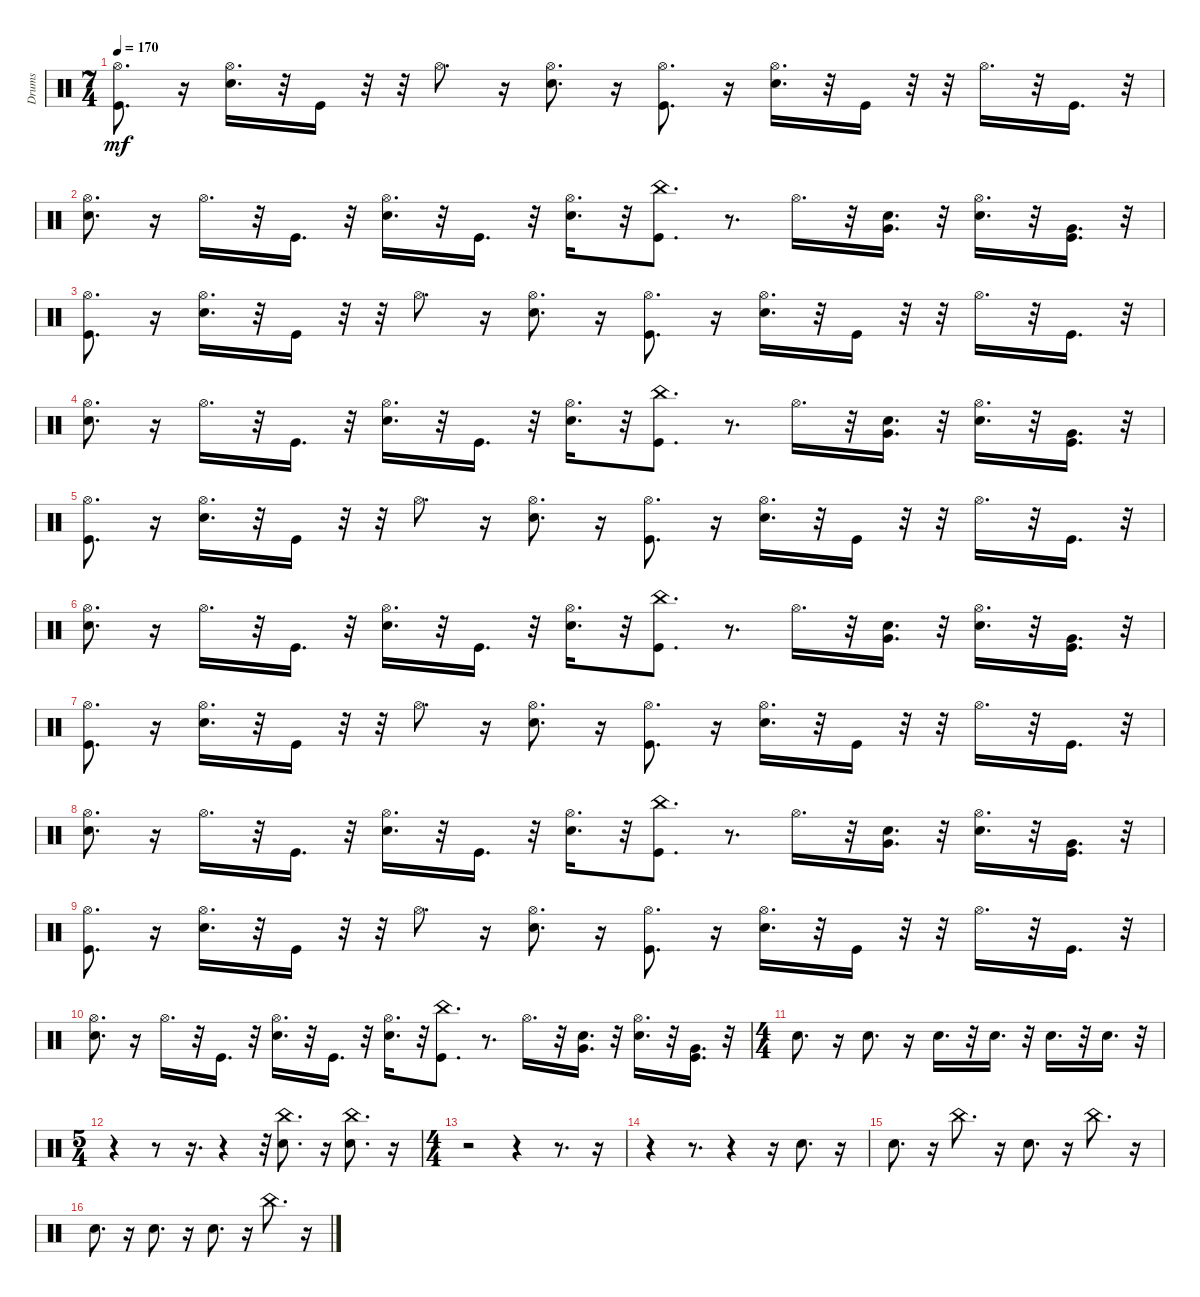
\track ("Drums" "Drums") {instrument percussion}
\staff {score}
\articulation defaults
\ts (7 4)
\tempo 170
\clef neutral
\ks c
("Kick (hit)" "Hi-Hat (open)").8{d dy mf} r.16 ("Snare (hit) 2" "Hi-Hat (open)").16{d} r.32 "Kick (hit)".16 r.32 r.32 "Hi-Hat (open)".8{d} r.16 ("Snare (hit) 2" "Hi-Hat (open)").8{d} r.16 ("Kick (hit)" "Hi-Hat (open)").8{d} r.16 ("Snare (hit) 2" "Hi-Hat (open)").16{d} r.32 "Kick (hit)".16 r.32 r.32 "Hi-Hat (open)".16{d} r.32 "Kick (hit)".16{d} r.32 |
("Snare (hit) 2" "Hi-Hat (open)").8{d} r.16 "Hi-Hat (open)".16{d} r.32 "Kick (hit)".16{d} r.32 ("Snare (hit) 2" "Hi-Hat (open)").16{d} r.32 "Kick (hit)".16{d} r.32 ("Snare (hit) 2" "Hi-Hat (open)").16{d} r.32 ("Kick (hit)" "China (hit)").8{d} r.8{d} "Hi-Hat (open)".16{d} r.32 ("Snare (hit) 2" "Very Low Tom (hit)").16{d} r.32 ("Snare (hit) 2" "Hi-Hat (open)").16{d} r.32 ("Kick (hit)" "Very Low Tom (hit)").16{d} r.32 |
("Kick (hit)" "Hi-Hat (open)").8{d} r.16 ("Snare (hit) 2" "Hi-Hat (open)").16{d} r.32 "Kick (hit)".16 r.32 r.32 "Hi-Hat (open)".8{d} r.16 ("Snare (hit) 2" "Hi-Hat (open)").8{d} r.16 ("Kick (hit)" "Hi-Hat (open)").8{d} r.16 ("Snare (hit) 2" "Hi-Hat (open)").16{d} r.32 "Kick (hit)".16 r.32 r.32 "Hi-Hat (open)".16{d} r.32 "Kick (hit)".16{d} r.32 |
("Snare (hit) 2" "Hi-Hat (open)").8{d} r.16 "Hi-Hat (open)".16{d} r.32 "Kick (hit)".16{d} r.32 ("Snare (hit) 2" "Hi-Hat (open)").16{d} r.32 "Kick (hit)".16{d} r.32 ("Snare (hit) 2" "Hi-Hat (open)").16{d} r.32 ("Kick (hit)" "China (hit)").8{d} r.8{d} "Hi-Hat (open)".16{d} r.32 ("Snare (hit) 2" "Very Low Tom (hit)").16{d} r.32 ("Snare (hit) 2" "Hi-Hat (open)").16{d} r.32 ("Kick (hit)" "Very Low Tom (hit)").16{d} r.32 |
("Kick (hit)" "Hi-Hat (open)").8{d} r.16 ("Snare (hit) 2" "Hi-Hat (open)").16{d} r.32 "Kick (hit)".16 r.32 r.32 "Hi-Hat (open)".8{d} r.16 ("Snare (hit) 2" "Hi-Hat (open)").8{d} r.16 ("Kick (hit)" "Hi-Hat (open)").8{d} r.16 ("Snare (hit) 2" "Hi-Hat (open)").16{d} r.32 "Kick (hit)".16 r.32 r.32 "Hi-Hat (open)".16{d} r.32 "Kick (hit)".16{d} r.32 |
("Snare (hit) 2" "Hi-Hat (open)").8{d} r.16 "Hi-Hat (open)".16{d} r.32 "Kick (hit)".16{d} r.32 ("Snare (hit) 2" "Hi-Hat (open)").16{d} r.32 "Kick (hit)".16{d} r.32 ("Snare (hit) 2" "Hi-Hat (open)").16{d} r.32 ("Kick (hit)" "China (hit)").8{d} r.8{d} "Hi-Hat (open)".16{d} r.32 ("Snare (hit) 2" "Very Low Tom (hit)").16{d} r.32 ("Snare (hit) 2" "Hi-Hat (open)").16{d} r.32 ("Kick (hit)" "Very Low Tom (hit)").16{d} r.32 |
("Kick (hit)" "Hi-Hat (open)").8{d} r.16 ("Snare (hit) 2" "Hi-Hat (open)").16{d} r.32 "Kick (hit)".16 r.32 r.32 "Hi-Hat (open)".8{d} r.16 ("Snare (hit) 2" "Hi-Hat (open)").8{d} r.16 ("Kick (hit)" "Hi-Hat (open)").8{d} r.16 ("Snare (hit) 2" "Hi-Hat (open)").16{d} r.32 "Kick (hit)".16 r.32 r.32 "Hi-Hat (open)".16{d} r.32 "Kick (hit)".16{d} r.32 |
("Snare (hit) 2" "Hi-Hat (open)").8{d} r.16 "Hi-Hat (open)".16{d} r.32 "Kick (hit)".16{d} r.32 ("Snare (hit) 2" "Hi-Hat (open)").16{d} r.32 "Kick (hit)".16{d} r.32 ("Snare (hit) 2" "Hi-Hat (open)").16{d} r.32 ("Kick (hit)" "China (hit)").8{d} r.8{d} "Hi-Hat (open)".16{d} r.32 ("Snare (hit) 2" "Very Low Tom (hit)").16{d} r.32 ("Snare (hit) 2" "Hi-Hat (open)").16{d} r.32 ("Kick (hit)" "Very Low Tom (hit)").16{d} r.32 |
("Kick (hit)" "Hi-Hat (open)").8{d} r.16 ("Snare (hit) 2" "Hi-Hat (open)").16{d} r.32 "Kick (hit)".16 r.32 r.32 "Hi-Hat (open)".8{d} r.16 ("Snare (hit) 2" "Hi-Hat (open)").8{d} r.16 ("Kick (hit)" "Hi-Hat (open)").8{d} r.16 ("Snare (hit) 2" "Hi-Hat (open)").16{d} r.32 "Kick (hit)".16 r.32 r.32 "Hi-Hat (open)".16{d} r.32 "Kick (hit)".16{d} r.32 |
("Snare (hit) 2" "Hi-Hat (open)").8{d} r.16 "Hi-Hat (open)".16{d} r.32 "Kick (hit)".16{d} r.32 ("Snare (hit) 2" "Hi-Hat (open)").16{d} r.32 "Kick (hit)".16{d} r.32 ("Snare (hit) 2" "Hi-Hat (open)").16{d} r.32 ("Kick (hit)" "China (hit)").8{d} r.8{d} "Hi-Hat (open)".16{d} r.32 ("Snare (hit) 2" "Very Low Tom (hit)").16{d} r.32 ("Snare (hit) 2" "Hi-Hat (open)").16{d} r.32 ("Kick (hit)" "Very Low Tom (hit)").16{d} r.32 |
\ts (4 4)
"Snare (hit) 2".8{d} r.16 "Snare (hit) 2".8{d} r.16 "Snare (hit) 2".16{d} r.32 "Snare (hit) 2".16{d} r.32 "Snare (hit) 2".16{d} r.32 "Snare (hit) 2".16{d} r.32 |
\ts (5 4)
r.4 r.8 r.16{d} r.4 r.32 ("Snare (hit) 2" "China (hit)").8{d} r.16 ("Snare (hit) 2" "China (hit)").8{d} r.16 |
\ts (4 4)
r.2 r.4 r.8{d} r.16 |
r.4 r.8{d} r.4 r.16 "Snare (hit) 2".8{d} r.16 |
"Snare (hit) 2".8{d} r.16 "China (hit)".8{d} r.16 "Snare (hit) 2".8{d} r.16 "China (hit)".8{d} r.16 |
"Snare (hit) 2".8{d} r.16 "Snare (hit) 2".8{d} r.16 "Snare (hit) 2".8{d} r.16 "China (hit)".8{d} r.16
